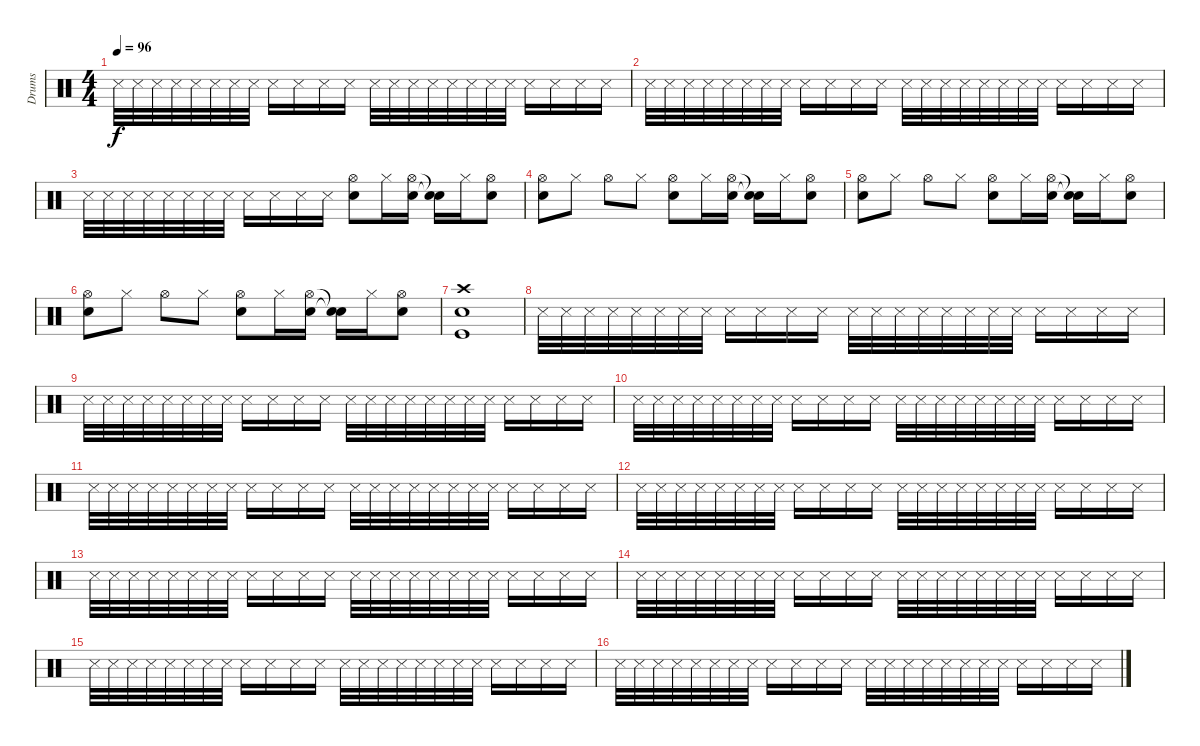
\track ("Drums" "Drums") {instrument percussion}
\staff {score}
\articulation defaults
\ts (4 4)
\tempo 96
\clef neutral
\ks c "Metronome (hit)".32{dy f} "Metronome (hit)".32 "Metronome (hit)".32 "Metronome (hit)".32 "Metronome (hit)".32 "Metronome (hit)".32 "Metronome (hit)".32 "Metronome (hit)".32 "Metronome (hit)".16 "Metronome (hit)".16 "Metronome (hit)".16 "Metronome (hit)".16 "Metronome (hit)".32 "Metronome (hit)".32 "Metronome (hit)".32 "Metronome (hit)".32 "Metronome (hit)".32 "Metronome (hit)".32 "Metronome (hit)".32 "Metronome (hit)".32 "Metronome (hit)".16 "Metronome (hit)".16 "Metronome (hit)".16 "Metronome (hit)".16
|
"Metronome (hit)".32 "Metronome (hit)".32 "Metronome (hit)".32 "Metronome (hit)".32 "Metronome (hit)".32 "Metronome (hit)".32 "Metronome (hit)".32 "Metronome (hit)".32 "Metronome (hit)".16 "Metronome (hit)".16 "Metronome (hit)".16 "Metronome (hit)".16 "Metronome (hit)".32 "Metronome (hit)".32 "Metronome (hit)".32 "Metronome (hit)".32 "Metronome (hit)".32 "Metronome (hit)".32 "Metronome (hit)".32 "Metronome (hit)".32 "Metronome (hit)".16 "Metronome (hit)".16 "Metronome (hit)".16 "Metronome (hit)".16 |
"Metronome (hit)".32 "Metronome (hit)".32 "Metronome (hit)".32 "Metronome (hit)".32 "Metronome (hit)".32 "Metronome (hit)".32 "Metronome (hit)".32 "Metronome (hit)".32 "Metronome (hit)".16 "Metronome (hit)".16 "Metronome (hit)".16 "Metronome (hit)".16 ("Snare (hit) 2" "Hi-Hat (open)").8 "Hi-Hat (closed)".16 ("Snare (hit) 2" "Hi-Hat (open)").16 ("Snare (hit)"{t} "Snare (hit)"{t}).16 "Hi-Hat (closed)".16 ("Snare (hit) 2" "Hi-Hat (open)").8 |
("Snare (hit) 2" "Hi-Hat (open)").8 "Hi-Hat (closed)".8 "Hi-Hat (open)".8 "Hi-Hat (closed)".8 ("Snare (hit) 2" "Hi-Hat (open)").8 "Hi-Hat (closed)".16 ("Snare (hit) 2" "Hi-Hat (open)").16 ("Snare (hit)"{t} "Snare (hit)"{t}).16 "Hi-Hat (closed)".16 ("Snare (hit) 2" "Hi-Hat (open)").8 |
("Snare (hit) 2" "Hi-Hat (open)").8 "Hi-Hat (closed)".8 "Hi-Hat (open)".8 "Hi-Hat (closed)".8 ("Snare (hit) 2" "Hi-Hat (open)").8 "Hi-Hat (closed)".16 ("Snare (hit) 2" "Hi-Hat (open)").16 ("Snare (hit)"{t} "Snare (hit)"{t}).16 "Hi-Hat (closed)".16 ("Snare (hit) 2" "Hi-Hat (open)").8 |
("Snare (hit) 2" "Hi-Hat (open)").8 "Hi-Hat (closed)".8 "Hi-Hat (open)".8 "Hi-Hat (closed)".8 ("Snare (hit) 2" "Hi-Hat (open)").8 "Hi-Hat (closed)".16 ("Snare (hit) 2" "Hi-Hat (open)").16 ("Snare (hit)"{t} "Snare (hit)"{t}).16 "Hi-Hat (closed)".16 ("Snare (hit) 2" "Hi-Hat (open)").8 |
("Crash high (hit)" "Snare (hit) 2" "Kick (hit)").1 |
"Metronome (hit)".32 "Metronome (hit)".32 "Metronome (hit)".32 "Metronome (hit)".32 "Metronome (hit)".32 "Metronome (hit)".32 "Metronome (hit)".32 "Metronome (hit)".32 "Metronome (hit)".16 "Metronome (hit)".16 "Metronome (hit)".16 "Metronome (hit)".16 "Metronome (hit)".32 "Metronome (hit)".32 "Metronome (hit)".32 "Metronome (hit)".32 "Metronome (hit)".32 "Metronome (hit)".32 "Metronome (hit)".32 "Metronome (hit)".32 "Metronome (hit)".16 "Metronome (hit)".16 "Metronome (hit)".16 "Metronome (hit)".16 |
"Metronome (hit)".32 "Metronome (hit)".32 "Metronome (hit)".32 "Metronome (hit)".32 "Metronome (hit)".32 "Metronome (hit)".32 "Metronome (hit)".32 "Metronome (hit)".32 "Metronome (hit)".16 "Metronome (hit)".16 "Metronome (hit)".16 "Metronome (hit)".16 "Metronome (hit)".32 "Metronome (hit)".32 "Metronome (hit)".32 "Metronome (hit)".32 "Metronome (hit)".32 "Metronome (hit)".32 "Metronome (hit)".32 "Metronome (hit)".32 "Metronome (hit)".16 "Metronome (hit)".16 "Metronome (hit)".16 "Metronome (hit)".16 |
"Metronome (hit)".32 "Metronome (hit)".32 "Metronome (hit)".32 "Metronome (hit)".32 "Metronome (hit)".32 "Metronome (hit)".32 "Metronome (hit)".32 "Metronome (hit)".32 "Metronome (hit)".16 "Metronome (hit)".16 "Metronome (hit)".16 "Metronome (hit)".16 "Metronome (hit)".32 "Metronome (hit)".32 "Metronome (hit)".32 "Metronome (hit)".32 "Metronome (hit)".32 "Metronome (hit)".32 "Metronome (hit)".32 "Metronome (hit)".32 "Metronome (hit)".16 "Metronome (hit)".16 "Metronome (hit)".16 "Metronome (hit)".16 |
"Metronome (hit)".32 "Metronome (hit)".32 "Metronome (hit)".32 "Metronome (hit)".32 "Metronome (hit)".32 "Metronome (hit)".32 "Metronome (hit)".32 "Metronome (hit)".32 "Metronome (hit)".16 "Metronome (hit)".16 "Metronome (hit)".16 "Metronome (hit)".16 "Metronome (hit)".32 "Metronome (hit)".32 "Metronome (hit)".32 "Metronome (hit)".32 "Metronome (hit)".32 "Metronome (hit)".32 "Metronome (hit)".32 "Metronome (hit)".32 "Metronome (hit)".16 "Metronome (hit)".16 "Metronome (hit)".16 "Metronome (hit)".16 |
"Metronome (hit)".32 "Metronome (hit)".32 "Metronome (hit)".32 "Metronome (hit)".32 "Metronome (hit)".32 "Metronome (hit)".32 "Metronome (hit)".32 "Metronome (hit)".32 "Metronome (hit)".16 "Metronome (hit)".16 "Metronome (hit)".16 "Metronome (hit)".16 "Metronome (hit)".32 "Metronome (hit)".32 "Metronome (hit)".32 "Metronome (hit)".32 "Metronome (hit)".32 "Metronome (hit)".32 "Metronome (hit)".32 "Metronome (hit)".32 "Metronome (hit)".16 "Metronome (hit)".16 "Metronome (hit)".16 "Metronome (hit)".16 |
"Metronome (hit)".32 "Metronome (hit)".32 "Metronome (hit)".32 "Metronome (hit)".32 "Metronome (hit)".32 "Metronome (hit)".32 "Metronome (hit)".32 "Metronome (hit)".32 "Metronome (hit)".16 "Metronome (hit)".16 "Metronome (hit)".16 "Metronome (hit)".16 "Metronome (hit)".32 "Metronome (hit)".32 "Metronome (hit)".32 "Metronome (hit)".32 "Metronome (hit)".32 "Metronome (hit)".32 "Metronome (hit)".32 "Metronome (hit)".32 "Metronome (hit)".16 "Metronome (hit)".16 "Metronome (hit)".16 "Metronome (hit)".16 |
"Metronome (hit)".32 "Metronome (hit)".32 "Metronome (hit)".32 "Metronome (hit)".32 "Metronome (hit)".32 "Metronome (hit)".32 "Metronome (hit)".32 "Metronome (hit)".32 "Metronome (hit)".16 "Metronome (hit)".16 "Metronome (hit)".16 "Metronome (hit)".16 "Metronome (hit)".32 "Metronome (hit)".32 "Metronome (hit)".32 "Metronome (hit)".32 "Metronome (hit)".32 "Metronome (hit)".32 "Metronome (hit)".32 "Metronome (hit)".32 "Metronome (hit)".16 "Metronome (hit)".16 "Metronome (hit)".16 "Metronome (hit)".16 |
"Metronome (hit)".32 "Metronome (hit)".32 "Metronome (hit)".32 "Metronome (hit)".32 "Metronome (hit)".32 "Metronome (hit)".32 "Metronome (hit)".32 "Metronome (hit)".32 "Metronome (hit)".16 "Metronome (hit)".16 "Metronome (hit)".16 "Metronome (hit)".16 "Metronome (hit)".32 "Metronome (hit)".32 "Metronome (hit)".32 "Metronome (hit)".32 "Metronome (hit)".32 "Metronome (hit)".32 "Metronome (hit)".32 "Metronome (hit)".32 "Metronome (hit)".16 "Metronome (hit)".16 "Metronome (hit)".16 "Metronome (hit)".16 |
"Metronome (hit)".32 "Metronome (hit)".32 "Metronome (hit)".32 "Metronome (hit)".32 "Metronome (hit)".32 "Metronome (hit)".32 "Metronome (hit)".32 "Metronome (hit)".32 "Metronome (hit)".16 "Metronome (hit)".16 "Metronome (hit)".16 "Metronome (hit)".16 "Metronome (hit)".32 "Metronome (hit)".32 "Metronome (hit)".32 "Metronome (hit)".32 "Metronome (hit)".32 "Metronome (hit)".32 "Metronome (hit)".32 "Metronome (hit)".32 "Metronome (hit)".16 "Metronome (hit)".16 "Metronome (hit)".16 "Metronome (hit)".16
